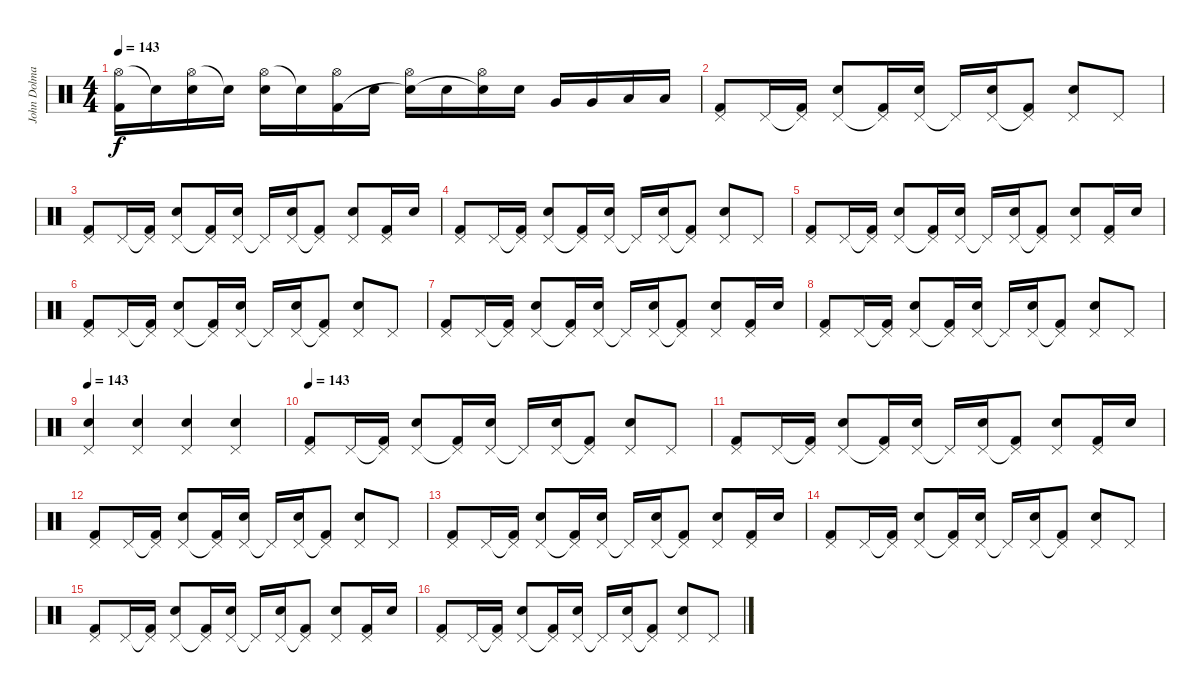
\track ("John Dolmayan (Drums)" "John Dolma") {instrument percussion}
\staff {score}
\articulation defaults
\ts (4 4)
\tempo 143
\clef neutral
\ks c
("Hi-Hat (open)" "Kick (hit) 2").16{dy f} "Snare (hit)"{t}.16 ("Hi-Hat (open)" "Electric Snare (hit)").16 "Snare (hit)"{t}.16 ("Hi-Hat (open)" "Electric Snare (hit)").16 "Snare (hit)"{t}.16 ("Hi-Hat (open)" "Kick (hit) 2").16 "Electric Snare (hit)".16 ("Hi-Hat (open)" "Snare (hit)"{t}).16 "Electric Snare (hit)".16 ("Hi-Hat (open)" "Snare (hit)"{t}).16 "Electric Snare (hit)".16 "Very Low Tom (hit)".16 "Very Low Tom (hit)".16 "Low Floor Tom (hit)".16 "Low Floor Tom (hit)".16 |
("Pedal Hi-Hat (hit)" "Kick (hit) 2").8 "Pedal Hi-Hat (hit)".16 ("Pedal Hi-Hat (hit)"{t} "Kick (hit) 2").16 ("Pedal Hi-Hat (hit)" "Electric Snare (hit)").8 ("Pedal Hi-Hat (hit)"{t} "Kick (hit) 2").16 ("Pedal Hi-Hat (hit)" "Electric Snare (hit)").16 "Pedal Hi-Hat (hit)"{t}.16 ("Pedal Hi-Hat (hit)" "Electric Snare (hit)").16 ("Pedal Hi-Hat (hit)"{t} "Kick (hit) 2").8 ("Pedal Hi-Hat (hit)" "Electric Snare (hit)").8 "Pedal Hi-Hat (hit)".8 |
("Pedal Hi-Hat (hit)" "Kick (hit) 2").8 "Pedal Hi-Hat (hit)".16 ("Pedal Hi-Hat (hit)"{t} "Kick (hit) 2").16 ("Pedal Hi-Hat (hit)" "Electric Snare (hit)").8 ("Pedal Hi-Hat (hit)"{t} "Kick (hit) 2").16 ("Pedal Hi-Hat (hit)" "Electric Snare (hit)").16 "Pedal Hi-Hat (hit)"{t}.16 ("Pedal Hi-Hat (hit)" "Electric Snare (hit)").16 ("Pedal Hi-Hat (hit)"{t} "Kick (hit) 2").8 ("Pedal Hi-Hat (hit)" "Electric Snare (hit)").8 ("Pedal Hi-Hat (hit)" "Kick (hit) 2").16 "Electric Snare (hit)".16 |
("Pedal Hi-Hat (hit)" "Kick (hit) 2").8 "Pedal Hi-Hat (hit)".16 ("Pedal Hi-Hat (hit)"{t} "Kick (hit) 2").16 ("Pedal Hi-Hat (hit)" "Electric Snare (hit)").8 ("Pedal Hi-Hat (hit)"{t} "Kick (hit) 2").16 ("Pedal Hi-Hat (hit)" "Electric Snare (hit)").16 "Pedal Hi-Hat (hit)"{t}.16 ("Pedal Hi-Hat (hit)" "Electric Snare (hit)").16 ("Pedal Hi-Hat (hit)"{t} "Kick (hit) 2").8 ("Pedal Hi-Hat (hit)" "Electric Snare (hit)").8 "Pedal Hi-Hat (hit)".8 |
("Pedal Hi-Hat (hit)" "Kick (hit) 2").8 "Pedal Hi-Hat (hit)".16 ("Pedal Hi-Hat (hit)"{t} "Kick (hit) 2").16 ("Pedal Hi-Hat (hit)" "Electric Snare (hit)").8 ("Pedal Hi-Hat (hit)"{t} "Kick (hit) 2").16 ("Pedal Hi-Hat (hit)" "Electric Snare (hit)").16 "Pedal Hi-Hat (hit)"{t}.16 ("Pedal Hi-Hat (hit)" "Electric Snare (hit)").16 ("Pedal Hi-Hat (hit)"{t} "Kick (hit) 2").8 ("Pedal Hi-Hat (hit)" "Electric Snare (hit)").8 ("Pedal Hi-Hat (hit)" "Kick (hit) 2").16 "Electric Snare (hit)".16 |
("Pedal Hi-Hat (hit)" "Kick (hit) 2").8 "Pedal Hi-Hat (hit)".16 ("Pedal Hi-Hat (hit)"{t} "Kick (hit) 2").16 ("Pedal Hi-Hat (hit)" "Electric Snare (hit)").8 ("Pedal Hi-Hat (hit)"{t} "Kick (hit) 2").16 ("Pedal Hi-Hat (hit)" "Electric Snare (hit)").16 "Pedal Hi-Hat (hit)"{t}.16 ("Pedal Hi-Hat (hit)" "Electric Snare (hit)").16 ("Pedal Hi-Hat (hit)"{t} "Kick (hit) 2").8 ("Pedal Hi-Hat (hit)" "Electric Snare (hit)").8 "Pedal Hi-Hat (hit)".8 |
("Pedal Hi-Hat (hit)" "Kick (hit) 2").8 "Pedal Hi-Hat (hit)".16 ("Pedal Hi-Hat (hit)"{t} "Kick (hit) 2").16 ("Pedal Hi-Hat (hit)" "Electric Snare (hit)").8 ("Pedal Hi-Hat (hit)"{t} "Kick (hit) 2").16 ("Pedal Hi-Hat (hit)" "Electric Snare (hit)").16 "Pedal Hi-Hat (hit)"{t}.16 ("Pedal Hi-Hat (hit)" "Electric Snare (hit)").16 ("Pedal Hi-Hat (hit)"{t} "Kick (hit) 2").8 ("Pedal Hi-Hat (hit)" "Electric Snare (hit)").8 ("Pedal Hi-Hat (hit)" "Kick (hit) 2").16 "Electric Snare (hit)".16 |
("Pedal Hi-Hat (hit)" "Kick (hit) 2").8 "Pedal Hi-Hat (hit)".16 ("Pedal Hi-Hat (hit)"{t} "Kick (hit) 2").16 ("Pedal Hi-Hat (hit)" "Electric Snare (hit)").8 ("Pedal Hi-Hat (hit)"{t} "Kick (hit) 2").16 ("Pedal Hi-Hat (hit)" "Electric Snare (hit)").16 "Pedal Hi-Hat (hit)"{t}.16 ("Pedal Hi-Hat (hit)" "Electric Snare (hit)").16 ("Pedal Hi-Hat (hit)"{t} "Kick (hit) 2").8 ("Pedal Hi-Hat (hit)" "Electric Snare (hit)").8 "Pedal Hi-Hat (hit)".8 |
\tempo 143
("Pedal Hi-Hat (hit)" "Electric Snare (hit)").4 ("Pedal Hi-Hat (hit)" "Electric Snare (hit)").4 ("Pedal Hi-Hat (hit)" "Electric Snare (hit)").4 ("Pedal Hi-Hat (hit)" "Electric Snare (hit)").4 |
\tempo 143
("Pedal Hi-Hat (hit)" "Kick (hit) 2").8 "Pedal Hi-Hat (hit)".16 ("Pedal Hi-Hat (hit)"{t} "Kick (hit) 2").16 ("Pedal Hi-Hat (hit)" "Electric Snare (hit)").8 ("Pedal Hi-Hat (hit)"{t} "Kick (hit) 2").16 ("Pedal Hi-Hat (hit)" "Electric Snare (hit)").16 "Pedal Hi-Hat (hit)"{t}.16 ("Pedal Hi-Hat (hit)" "Electric Snare (hit)").16 ("Pedal Hi-Hat (hit)"{t} "Kick (hit) 2").8 ("Pedal Hi-Hat (hit)" "Electric Snare (hit)").8 "Pedal Hi-Hat (hit)".8 |
("Pedal Hi-Hat (hit)" "Kick (hit) 2").8 "Pedal Hi-Hat (hit)".16 ("Pedal Hi-Hat (hit)"{t} "Kick (hit) 2").16 ("Pedal Hi-Hat (hit)" "Electric Snare (hit)").8 ("Pedal Hi-Hat (hit)"{t} "Kick (hit) 2").16 ("Pedal Hi-Hat (hit)" "Electric Snare (hit)").16 "Pedal Hi-Hat (hit)"{t}.16 ("Pedal Hi-Hat (hit)" "Electric Snare (hit)").16 ("Pedal Hi-Hat (hit)"{t} "Kick (hit) 2").8 ("Pedal Hi-Hat (hit)" "Electric Snare (hit)").8 ("Pedal Hi-Hat (hit)" "Kick (hit) 2").16 "Electric Snare (hit)".16 |
("Pedal Hi-Hat (hit)" "Kick (hit) 2").8 "Pedal Hi-Hat (hit)".16 ("Pedal Hi-Hat (hit)"{t} "Kick (hit) 2").16 ("Pedal Hi-Hat (hit)" "Electric Snare (hit)").8 ("Pedal Hi-Hat (hit)"{t} "Kick (hit) 2").16 ("Pedal Hi-Hat (hit)" "Electric Snare (hit)").16 "Pedal Hi-Hat (hit)"{t}.16 ("Pedal Hi-Hat (hit)" "Electric Snare (hit)").16 ("Pedal Hi-Hat (hit)"{t} "Kick (hit) 2").8 ("Pedal Hi-Hat (hit)" "Electric Snare (hit)").8 "Pedal Hi-Hat (hit)".8 |
("Pedal Hi-Hat (hit)" "Kick (hit) 2").8 "Pedal Hi-Hat (hit)".16 ("Pedal Hi-Hat (hit)"{t} "Kick (hit) 2").16 ("Pedal Hi-Hat (hit)" "Electric Snare (hit)").8 ("Pedal Hi-Hat (hit)"{t} "Kick (hit) 2").16 ("Pedal Hi-Hat (hit)" "Electric Snare (hit)").16 "Pedal Hi-Hat (hit)"{t}.16 ("Pedal Hi-Hat (hit)" "Electric Snare (hit)").16 ("Pedal Hi-Hat (hit)"{t} "Kick (hit) 2").8 ("Pedal Hi-Hat (hit)" "Electric Snare (hit)").8 ("Pedal Hi-Hat (hit)" "Kick (hit) 2").16 "Electric Snare (hit)".16 |
("Pedal Hi-Hat (hit)" "Kick (hit) 2").8 "Pedal Hi-Hat (hit)".16 ("Pedal Hi-Hat (hit)"{t} "Kick (hit) 2").16 ("Pedal Hi-Hat (hit)" "Electric Snare (hit)").8 ("Pedal Hi-Hat (hit)"{t} "Kick (hit) 2").16 ("Pedal Hi-Hat (hit)" "Electric Snare (hit)").16 "Pedal Hi-Hat (hit)"{t}.16 ("Pedal Hi-Hat (hit)" "Electric Snare (hit)").16 ("Pedal Hi-Hat (hit)"{t} "Kick (hit) 2").8 ("Pedal Hi-Hat (hit)" "Electric Snare (hit)").8 "Pedal Hi-Hat (hit)".8 |
("Pedal Hi-Hat (hit)" "Kick (hit) 2").8 "Pedal Hi-Hat (hit)".16 ("Pedal Hi-Hat (hit)"{t} "Kick (hit) 2").16 ("Pedal Hi-Hat (hit)" "Electric Snare (hit)").8 ("Pedal Hi-Hat (hit)"{t} "Kick (hit) 2").16 ("Pedal Hi-Hat (hit)" "Electric Snare (hit)").16 "Pedal Hi-Hat (hit)"{t}.16 ("Pedal Hi-Hat (hit)" "Electric Snare (hit)").16 ("Pedal Hi-Hat (hit)"{t} "Kick (hit) 2").8 ("Pedal Hi-Hat (hit)" "Electric Snare (hit)").8 ("Pedal Hi-Hat (hit)" "Kick (hit) 2").16 "Electric Snare (hit)".16 |
("Pedal Hi-Hat (hit)" "Kick (hit) 2").8 "Pedal Hi-Hat (hit)".16 ("Pedal Hi-Hat (hit)"{t} "Kick (hit) 2").16 ("Pedal Hi-Hat (hit)" "Electric Snare (hit)").8 ("Pedal Hi-Hat (hit)"{t} "Kick (hit) 2").16 ("Pedal Hi-Hat (hit)" "Electric Snare (hit)").16 "Pedal Hi-Hat (hit)"{t}.16 ("Pedal Hi-Hat (hit)" "Electric Snare (hit)").16 ("Pedal Hi-Hat (hit)"{t} "Kick (hit) 2").8 ("Pedal Hi-Hat (hit)" "Electric Snare (hit)").8 "Pedal Hi-Hat (hit)".8
